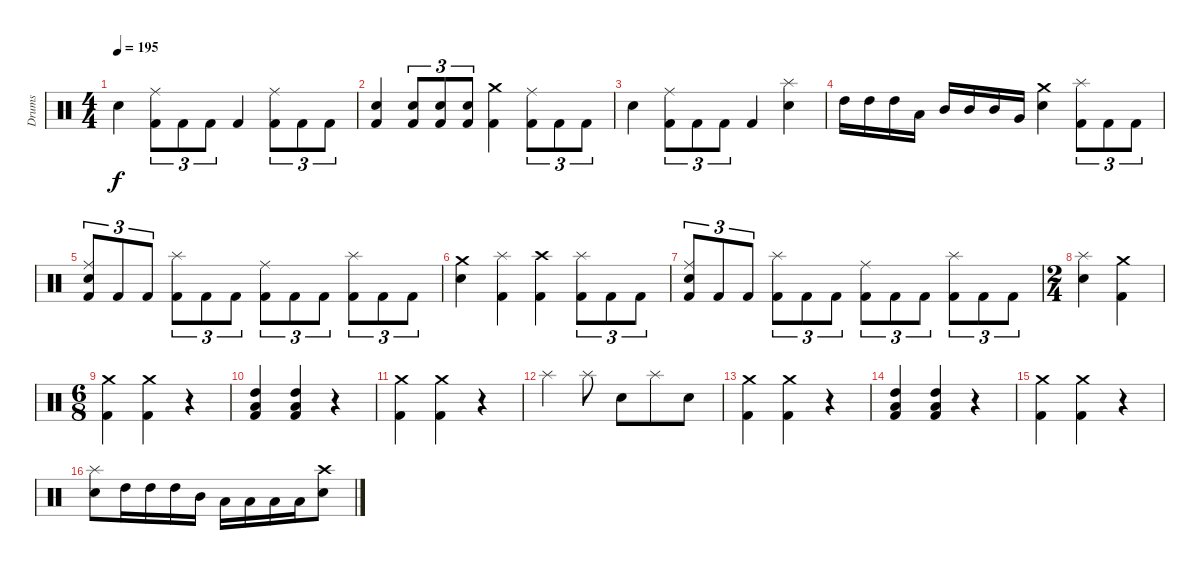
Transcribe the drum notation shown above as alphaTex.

\track ("Drums" "Drums") {instrument percussion}
\staff {score}
\articulation defaults
\ts (4 4)
\tempo 195
\clef neutral
\ks c "Electric Snare (hit)".4{dy f}
("Ride (middle)" "Kick (hit) 2").8{tu (3 2)} "Kick (hit) 2".8{tu (3 2)} "Kick (hit) 2".8{tu (3 2)} "Kick (hit) 2".4 ("Ride (middle)" "Kick (hit) 2").8{tu (3 2)} "Kick (hit) 2".8{tu (3 2)} "Kick (hit) 2".8{tu (3 2)} |
("Electric Snare (hit)" "Kick (hit) 2").4 ("Electric Snare (hit)" "Kick (hit) 2").8{tu (3 2)} ("Electric Snare (hit)" "Kick (hit) 2").8{tu (3 2)} ("Electric Snare (hit)" "Kick (hit) 2").8{tu (3 2)} ("Crash medium (hit)" "Kick (hit) 2").4 ("Ride (middle)" "Kick (hit) 2").8{tu (3 2)} "Kick (hit) 2".8{tu (3 2)} "Kick (hit) 2".8{tu (3 2)} |
"Electric Snare (hit)".4 ("Ride (middle)" "Kick (hit) 2").8{tu (3 2)} "Kick (hit) 2".8{tu (3 2)} "Kick (hit) 2".8{tu (3 2)} "Kick (hit) 2".4 ("Splash (hit)" "Electric Snare (hit)").4 |
"High Tom (hit)".16 "High Tom (hit)".16 "High Tom (hit)".16 "Low Tom (hit)".16 "Mid Tom (hit)".16 "Mid Tom (hit)".16 "Mid Tom (hit)".16 "Very Low Tom (hit)".16 ("Crash medium (hit)" "Electric Snare (hit)").4 ("Splash (hit)" "Kick (hit) 2").8{tu (3 2)} "Kick (hit) 2".8{tu (3 2)} "Kick (hit) 2".8{tu (3 2)} |
("Ride (middle)" "Electric Snare (hit)" "Kick (hit) 2").8{tu (3 2)} "Kick (hit) 2".8{tu (3 2)} "Kick (hit) 2".8{tu (3 2)} ("Splash (hit)" "Kick (hit) 2").8{tu (3 2)} "Kick (hit) 2".8{tu (3 2)} "Kick (hit) 2".8{tu (3 2)} ("Ride (middle)" "Kick (hit) 2").8{tu (3 2)} "Kick (hit) 2".8{tu (3 2)} "Kick (hit) 2".8{tu (3 2)} ("Splash (hit)" "Kick (hit) 2").8{tu (3 2)} "Kick (hit) 2".8{tu (3 2)} "Kick (hit) 2".8{tu (3 2)} |
("Crash medium (hit)" "Electric Snare (hit)").4 ("Splash (hit)" "Kick (hit) 2").4 ("Crash high (hit)" "Kick (hit) 2").4 ("Splash (hit)" "Kick (hit) 2").8{tu (3 2)} "Kick (hit) 2".8{tu (3 2)} "Kick (hit) 2".8{tu (3 2)} |
("Ride (middle)" "Electric Snare (hit)" "Kick (hit) 2").8{tu (3 2)} "Kick (hit) 2".8{tu (3 2)} "Kick (hit) 2".8{tu (3 2)} ("Splash (hit)" "Kick (hit) 2").8{tu (3 2)} "Kick (hit) 2".8{tu (3 2)} "Kick (hit) 2".8{tu (3 2)} ("Ride (middle)" "Kick (hit) 2").8{tu (3 2)} "Kick (hit) 2".8{tu (3 2)} "Kick (hit) 2".8{tu (3 2)} ("Splash (hit)" "Kick (hit) 2").8{tu (3 2)} "Kick (hit) 2".8{tu (3 2)} "Kick (hit) 2".8{tu (3 2)} |
\ts (2 4)
("Splash (hit)" "Electric Snare (hit)").4 ("Crash medium (hit)" "Kick (hit) 2").4 |
\ts (6 8)
("Crash medium (hit)" "Kick (hit) 2").4 ("Crash medium (hit)" "Kick (hit) 2").4 r.4 |
("High Tom (hit)" "Low Tom (hit)" "Kick (hit) 2").4 ("High Tom (hit)" "Low Tom (hit)" "Kick (hit) 2").4 r.4 |
("Crash medium (hit)" "Kick (hit) 2").4 ("Crash medium (hit)" "Kick (hit) 2").4 r.4 |
"Splash (hit)".4 "Splash (hit)".8 "Electric Snare (hit)".8 "Splash (hit)".8 "Electric Snare (hit)".8 |
("Crash medium (hit)" "Kick (hit) 2").4 ("Crash medium (hit)" "Kick (hit) 2").4 r.4 |
("High Tom (hit)" "Low Tom (hit)" "Kick (hit) 2").4 ("High Tom (hit)" "Low Tom (hit)" "Kick (hit) 2").4 r.4 |
("Crash medium (hit)" "Kick (hit) 2").4 ("Crash medium (hit)" "Kick (hit) 2").4 r.4 |
("Splash (hit)" "Electric Snare (hit)").8 "High Tom (hit)".16 "High Tom (hit)".16 "High Tom (hit)".16 "Mid Tom (hit)".16 "Low Tom (hit)".16 "Low Tom (hit)".16 "Low Tom (hit)".16 "Low Tom (hit)".16 ("Crash high (hit)" "Electric Snare (hit)").8
